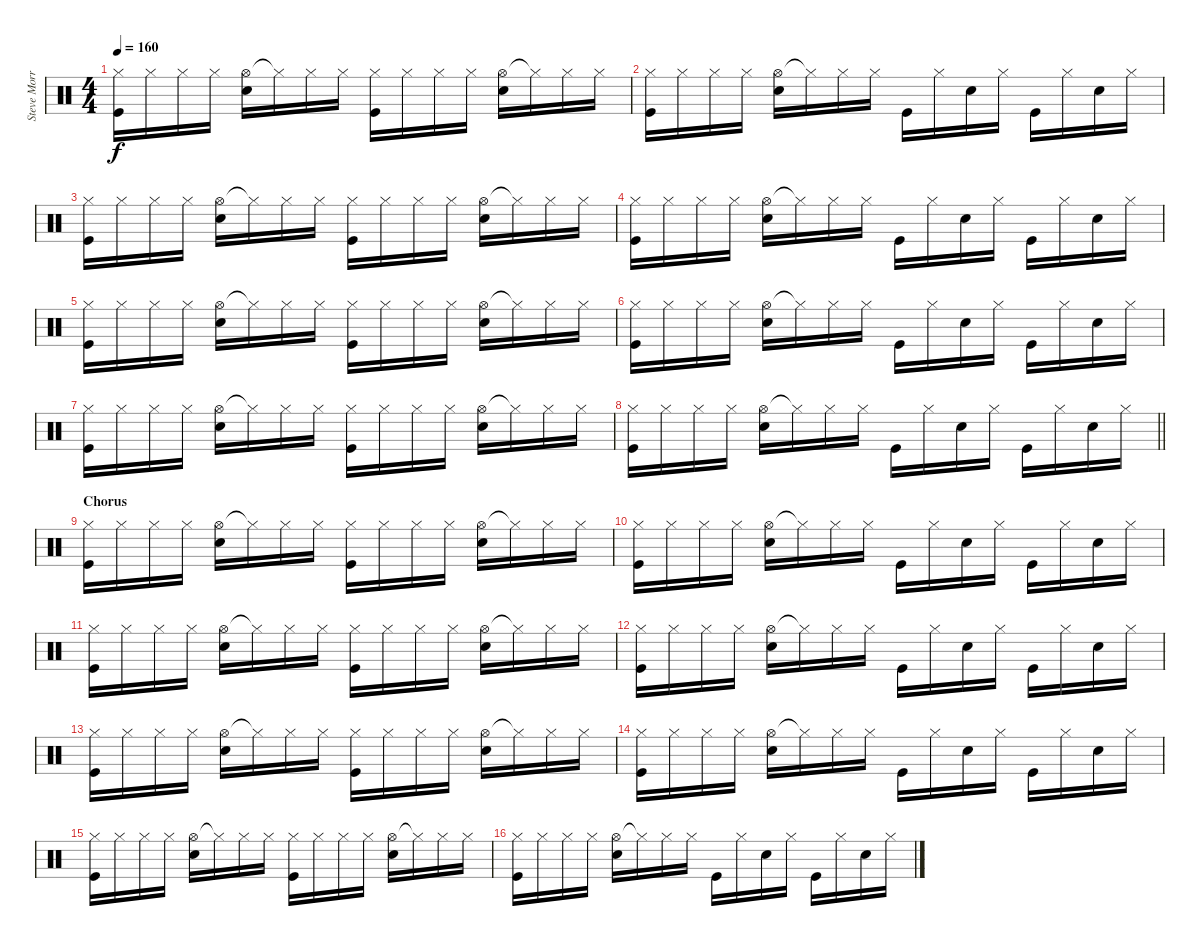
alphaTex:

\track ("Steve Morris" "Steve Morr") {instrument percussion}
\staff {score}
\articulation defaults
\ts (4 4)
\tempo 160
\clef neutral
\ks c
("Hi-Hat (closed)" "Kick (hit)").16{dy f} "Hi-Hat (closed)".16 "Hi-Hat (closed)".16 "Hi-Hat (closed)".16 ("Hi-Hat (open)" "Electric Snare (hit)").16 "Hi-Hat (closed)"{t}.16 "Hi-Hat (closed)".16 "Hi-Hat (closed)".16 ("Hi-Hat (closed)" "Kick (hit)").16 "Hi-Hat (closed)".16 "Hi-Hat (closed)".16 "Hi-Hat (closed)".16 ("Hi-Hat (open)" "Electric Snare (hit)").16 "Hi-Hat (closed)"{t}.16 "Hi-Hat (closed)".16 "Hi-Hat (closed)".16 |
("Hi-Hat (closed)" "Kick (hit)").16 "Hi-Hat (closed)".16 "Hi-Hat (closed)".16 "Hi-Hat (closed)".16 ("Hi-Hat (open)" "Electric Snare (hit)").16 "Hi-Hat (closed)"{t}.16 "Hi-Hat (closed)".16 "Hi-Hat (closed)".16 "Kick (hit)".16 "Hi-Hat (closed)".16 "Electric Snare (hit)".16 "Hi-Hat (closed)".16 "Kick (hit)".16 "Hi-Hat (closed)".16 "Electric Snare (hit)".16 "Hi-Hat (closed)".16 |
("Hi-Hat (closed)" "Kick (hit)").16 "Hi-Hat (closed)".16 "Hi-Hat (closed)".16 "Hi-Hat (closed)".16 ("Hi-Hat (open)" "Electric Snare (hit)").16 "Hi-Hat (closed)"{t}.16 "Hi-Hat (closed)".16 "Hi-Hat (closed)".16 ("Hi-Hat (closed)" "Kick (hit)").16 "Hi-Hat (closed)".16 "Hi-Hat (closed)".16 "Hi-Hat (closed)".16 ("Hi-Hat (open)" "Electric Snare (hit)").16 "Hi-Hat (closed)"{t}.16 "Hi-Hat (closed)".16 "Hi-Hat (closed)".16 |
("Hi-Hat (closed)" "Kick (hit)").16 "Hi-Hat (closed)".16 "Hi-Hat (closed)".16 "Hi-Hat (closed)".16 ("Hi-Hat (open)" "Electric Snare (hit)").16 "Hi-Hat (closed)"{t}.16 "Hi-Hat (closed)".16 "Hi-Hat (closed)".16 "Kick (hit)".16 "Hi-Hat (closed)".16 "Electric Snare (hit)".16 "Hi-Hat (closed)".16 "Kick (hit)".16 "Hi-Hat (closed)".16 "Electric Snare (hit)".16 "Hi-Hat (closed)".16 |
("Hi-Hat (closed)" "Kick (hit)").16 "Hi-Hat (closed)".16 "Hi-Hat (closed)".16 "Hi-Hat (closed)".16 ("Hi-Hat (open)" "Electric Snare (hit)").16 "Hi-Hat (closed)"{t}.16 "Hi-Hat (closed)".16 "Hi-Hat (closed)".16 ("Hi-Hat (closed)" "Kick (hit)").16 "Hi-Hat (closed)".16 "Hi-Hat (closed)".16 "Hi-Hat (closed)".16 ("Hi-Hat (open)" "Electric Snare (hit)").16 "Hi-Hat (closed)"{t}.16 "Hi-Hat (closed)".16 "Hi-Hat (closed)".16 |
("Hi-Hat (closed)" "Kick (hit)").16 "Hi-Hat (closed)".16 "Hi-Hat (closed)".16 "Hi-Hat (closed)".16 ("Hi-Hat (open)" "Electric Snare (hit)").16 "Hi-Hat (closed)"{t}.16 "Hi-Hat (closed)".16 "Hi-Hat (closed)".16 "Kick (hit)".16 "Hi-Hat (closed)".16 "Electric Snare (hit)".16 "Hi-Hat (closed)".16 "Kick (hit)".16 "Hi-Hat (closed)".16 "Electric Snare (hit)".16 "Hi-Hat (closed)".16 |
("Hi-Hat (closed)" "Kick (hit)").16 "Hi-Hat (closed)".16 "Hi-Hat (closed)".16 "Hi-Hat (closed)".16 ("Hi-Hat (open)" "Electric Snare (hit)").16 "Hi-Hat (closed)"{t}.16 "Hi-Hat (closed)".16 "Hi-Hat (closed)".16 ("Hi-Hat (closed)" "Kick (hit)").16 "Hi-Hat (closed)".16 "Hi-Hat (closed)".16 "Hi-Hat (closed)".16 ("Hi-Hat (open)" "Electric Snare (hit)").16 "Hi-Hat (closed)"{t}.16 "Hi-Hat (closed)".16 "Hi-Hat (closed)".16 |
\barLineRight lightlight
("Hi-Hat (closed)" "Kick (hit)").16 "Hi-Hat (closed)".16 "Hi-Hat (closed)".16 "Hi-Hat (closed)".16 ("Hi-Hat (open)" "Electric Snare (hit)").16 "Hi-Hat (closed)"{t}.16 "Hi-Hat (closed)".16 "Hi-Hat (closed)".16 "Kick (hit)".16 "Hi-Hat (closed)".16 "Electric Snare (hit)".16 "Hi-Hat (closed)".16 "Kick (hit)".16 "Hi-Hat (closed)".16 "Electric Snare (hit)".16 "Hi-Hat (closed)".16 |
\section ("" "Chorus")
("Hi-Hat (closed)" "Kick (hit)").16 "Hi-Hat (closed)".16 "Hi-Hat (closed)".16 "Hi-Hat (closed)".16 ("Hi-Hat (open)" "Electric Snare (hit)").16 "Hi-Hat (closed)"{t}.16 "Hi-Hat (closed)".16 "Hi-Hat (closed)".16 ("Hi-Hat (closed)" "Kick (hit)").16 "Hi-Hat (closed)".16 "Hi-Hat (closed)".16 "Hi-Hat (closed)".16 ("Hi-Hat (open)" "Electric Snare (hit)").16 "Hi-Hat (closed)"{t}.16 "Hi-Hat (closed)".16 "Hi-Hat (closed)".16 |
("Hi-Hat (closed)" "Kick (hit)").16 "Hi-Hat (closed)".16 "Hi-Hat (closed)".16 "Hi-Hat (closed)".16 ("Hi-Hat (open)" "Electric Snare (hit)").16 "Hi-Hat (closed)"{t}.16 "Hi-Hat (closed)".16 "Hi-Hat (closed)".16 "Kick (hit)".16 "Hi-Hat (closed)".16 "Electric Snare (hit)".16 "Hi-Hat (closed)".16 "Kick (hit)".16 "Hi-Hat (closed)".16 "Electric Snare (hit)".16 "Hi-Hat (closed)".16 |
("Hi-Hat (closed)" "Kick (hit)").16 "Hi-Hat (closed)".16 "Hi-Hat (closed)".16 "Hi-Hat (closed)".16 ("Hi-Hat (open)" "Electric Snare (hit)").16 "Hi-Hat (closed)"{t}.16 "Hi-Hat (closed)".16 "Hi-Hat (closed)".16 ("Hi-Hat (closed)" "Kick (hit)").16 "Hi-Hat (closed)".16 "Hi-Hat (closed)".16 "Hi-Hat (closed)".16 ("Hi-Hat (open)" "Electric Snare (hit)").16 "Hi-Hat (closed)"{t}.16 "Hi-Hat (closed)".16 "Hi-Hat (closed)".16 |
("Hi-Hat (closed)" "Kick (hit)").16 "Hi-Hat (closed)".16 "Hi-Hat (closed)".16 "Hi-Hat (closed)".16 ("Hi-Hat (open)" "Electric Snare (hit)").16 "Hi-Hat (closed)"{t}.16 "Hi-Hat (closed)".16 "Hi-Hat (closed)".16 "Kick (hit)".16 "Hi-Hat (closed)".16 "Electric Snare (hit)".16 "Hi-Hat (closed)".16 "Kick (hit)".16 "Hi-Hat (closed)".16 "Electric Snare (hit)".16 "Hi-Hat (closed)".16 |
("Hi-Hat (closed)" "Kick (hit)").16 "Hi-Hat (closed)".16 "Hi-Hat (closed)".16 "Hi-Hat (closed)".16 ("Hi-Hat (open)" "Electric Snare (hit)").16 "Hi-Hat (closed)"{t}.16 "Hi-Hat (closed)".16 "Hi-Hat (closed)".16 ("Hi-Hat (closed)" "Kick (hit)").16 "Hi-Hat (closed)".16 "Hi-Hat (closed)".16 "Hi-Hat (closed)".16 ("Hi-Hat (open)" "Electric Snare (hit)").16 "Hi-Hat (closed)"{t}.16 "Hi-Hat (closed)".16 "Hi-Hat (closed)".16 |
("Hi-Hat (closed)" "Kick (hit)").16 "Hi-Hat (closed)".16 "Hi-Hat (closed)".16 "Hi-Hat (closed)".16 ("Hi-Hat (open)" "Electric Snare (hit)").16 "Hi-Hat (closed)"{t}.16 "Hi-Hat (closed)".16 "Hi-Hat (closed)".16 "Kick (hit)".16 "Hi-Hat (closed)".16 "Electric Snare (hit)".16 "Hi-Hat (closed)".16 "Kick (hit)".16 "Hi-Hat (closed)".16 "Electric Snare (hit)".16 "Hi-Hat (closed)".16 |
("Hi-Hat (closed)" "Kick (hit)").16 "Hi-Hat (closed)".16 "Hi-Hat (closed)".16 "Hi-Hat (closed)".16 ("Hi-Hat (open)" "Electric Snare (hit)").16 "Hi-Hat (closed)"{t}.16 "Hi-Hat (closed)".16 "Hi-Hat (closed)".16 ("Hi-Hat (closed)" "Kick (hit)").16 "Hi-Hat (closed)".16 "Hi-Hat (closed)".16 "Hi-Hat (closed)".16 ("Hi-Hat (open)" "Electric Snare (hit)").16 "Hi-Hat (closed)"{t}.16 "Hi-Hat (closed)".16 "Hi-Hat (closed)".16 |
("Hi-Hat (closed)" "Kick (hit)").16 "Hi-Hat (closed)".16 "Hi-Hat (closed)".16 "Hi-Hat (closed)".16 ("Hi-Hat (open)" "Electric Snare (hit)").16 "Hi-Hat (closed)"{t}.16 "Hi-Hat (closed)".16 "Hi-Hat (closed)".16 "Kick (hit)".16 "Hi-Hat (closed)".16 "Electric Snare (hit)".16 "Hi-Hat (closed)".16 "Kick (hit)".16 "Hi-Hat (closed)".16 "Electric Snare (hit)".16 "Hi-Hat (closed)".16
